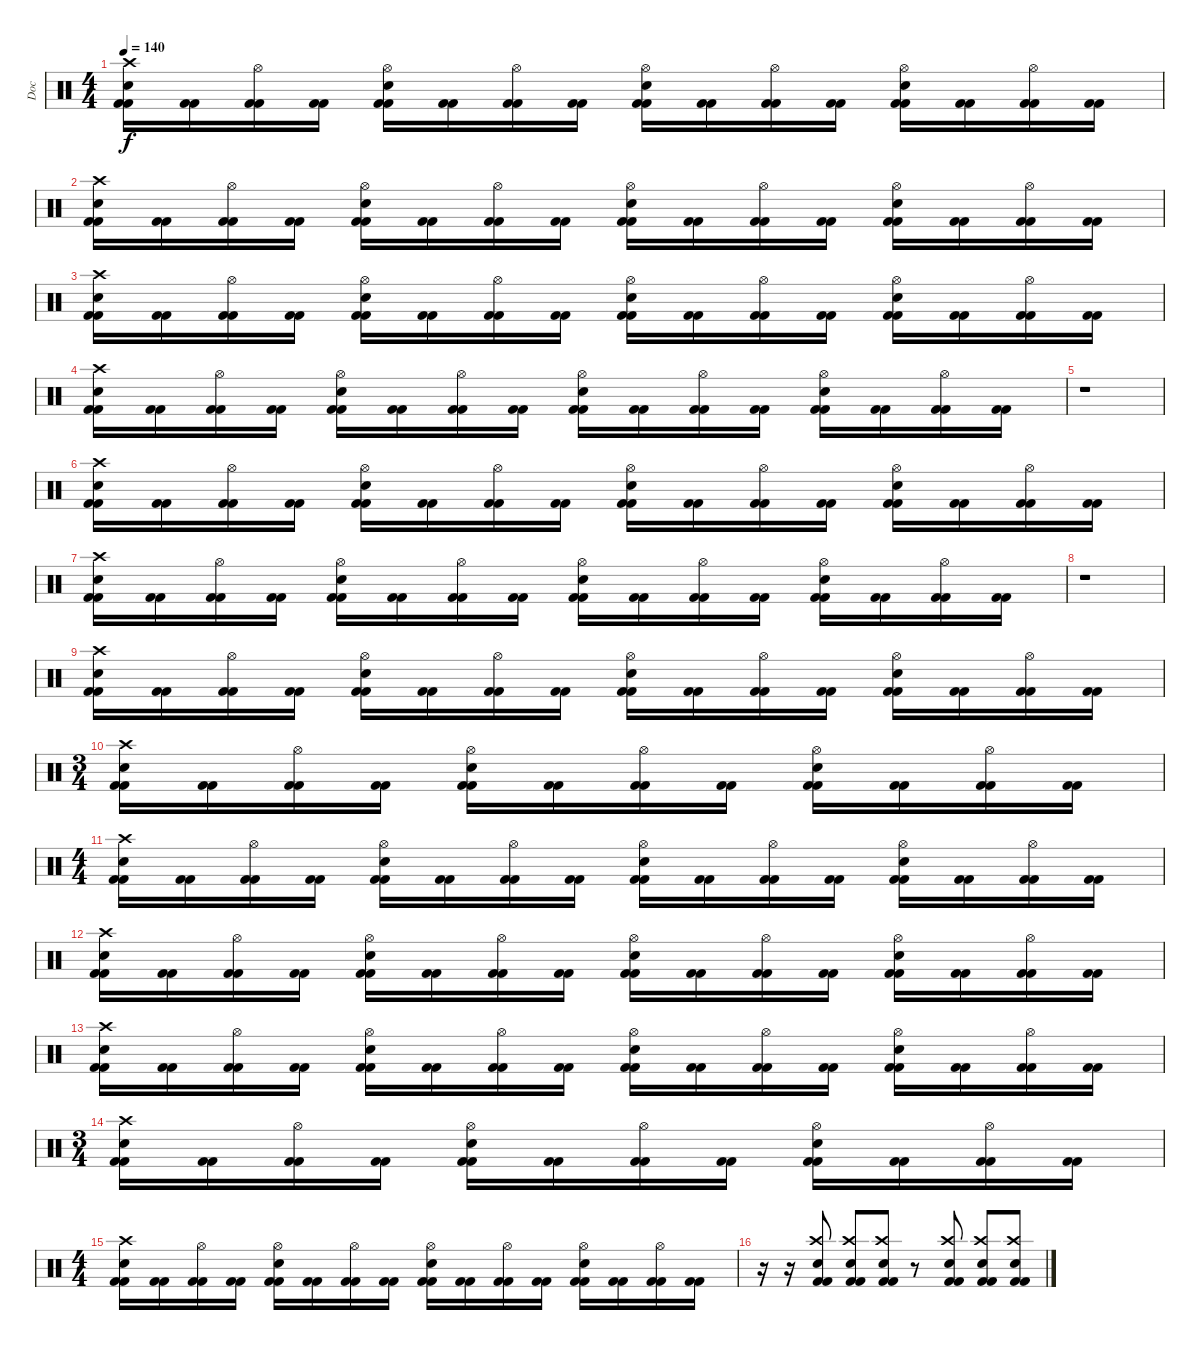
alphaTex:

\track ("Doc" "Doc") {instrument percussion}
\staff {score}
\articulation defaults
\ts (4 4)
\tempo 140
\clef neutral
\ks c
("Kick (hit) 2" "Crash high (hit)" "Electric Snare (hit)" "Kick (hit) 2").16{dy f} ("Kick (hit) 2" "Kick (hit) 2").16 ("Kick (hit) 2" "Hi-Hat (open)" "Kick (hit) 2").16 ("Kick (hit) 2" "Kick (hit) 2").16 ("Kick (hit) 2" "Hi-Hat (open)" "Electric Snare (hit)" "Kick (hit) 2").16 ("Kick (hit) 2" "Kick (hit) 2").16 ("Kick (hit) 2" "Hi-Hat (open)" "Kick (hit) 2").16 ("Kick (hit) 2" "Kick (hit) 2").16 ("Kick (hit) 2" "Hi-Hat (open)" "Electric Snare (hit)" "Kick (hit) 2").16 ("Kick (hit) 2" "Kick (hit) 2").16 ("Kick (hit) 2" "Hi-Hat (open)" "Kick (hit) 2").16 ("Kick (hit) 2" "Kick (hit) 2").16 ("Kick (hit) 2" "Hi-Hat (open)" "Electric Snare (hit)" "Kick (hit) 2").16 ("Kick (hit) 2" "Kick (hit) 2").16 ("Kick (hit) 2" "Hi-Hat (open)" "Kick (hit) 2").16 ("Kick (hit) 2" "Kick (hit) 2").16 |
("Kick (hit) 2" "Crash high (hit)" "Electric Snare (hit)" "Kick (hit) 2").16 ("Kick (hit) 2" "Kick (hit) 2").16 ("Kick (hit) 2" "Hi-Hat (open)" "Kick (hit) 2").16 ("Kick (hit) 2" "Kick (hit) 2").16 ("Kick (hit) 2" "Hi-Hat (open)" "Electric Snare (hit)" "Kick (hit) 2").16 ("Kick (hit) 2" "Kick (hit) 2").16 ("Kick (hit) 2" "Hi-Hat (open)" "Kick (hit) 2").16 ("Kick (hit) 2" "Kick (hit) 2").16 ("Kick (hit) 2" "Hi-Hat (open)" "Electric Snare (hit)" "Kick (hit) 2").16 ("Kick (hit) 2" "Kick (hit) 2").16 ("Kick (hit) 2" "Hi-Hat (open)" "Kick (hit) 2").16 ("Kick (hit) 2" "Kick (hit) 2").16 ("Kick (hit) 2" "Hi-Hat (open)" "Electric Snare (hit)" "Kick (hit) 2").16 ("Kick (hit) 2" "Kick (hit) 2").16 ("Kick (hit) 2" "Hi-Hat (open)" "Kick (hit) 2").16 ("Kick (hit) 2" "Kick (hit) 2").16 |
("Kick (hit) 2" "Crash high (hit)" "Electric Snare (hit)" "Kick (hit) 2").16 ("Kick (hit) 2" "Kick (hit) 2").16 ("Kick (hit) 2" "Hi-Hat (open)" "Kick (hit) 2").16 ("Kick (hit) 2" "Kick (hit) 2").16 ("Kick (hit) 2" "Hi-Hat (open)" "Electric Snare (hit)" "Kick (hit) 2").16 ("Kick (hit) 2" "Kick (hit) 2").16 ("Kick (hit) 2" "Hi-Hat (open)" "Kick (hit) 2").16 ("Kick (hit) 2" "Kick (hit) 2").16 ("Kick (hit) 2" "Hi-Hat (open)" "Electric Snare (hit)" "Kick (hit) 2").16 ("Kick (hit) 2" "Kick (hit) 2").16 ("Kick (hit) 2" "Hi-Hat (open)" "Kick (hit) 2").16 ("Kick (hit) 2" "Kick (hit) 2").16 ("Kick (hit) 2" "Hi-Hat (open)" "Electric Snare (hit)" "Kick (hit) 2").16 ("Kick (hit) 2" "Kick (hit) 2").16 ("Kick (hit) 2" "Hi-Hat (open)" "Kick (hit) 2").16 ("Kick (hit) 2" "Kick (hit) 2").16 |
("Kick (hit) 2" "Crash high (hit)" "Electric Snare (hit)" "Kick (hit) 2").16 ("Kick (hit) 2" "Kick (hit) 2").16 ("Kick (hit) 2" "Hi-Hat (open)" "Kick (hit) 2").16 ("Kick (hit) 2" "Kick (hit) 2").16 ("Kick (hit) 2" "Hi-Hat (open)" "Electric Snare (hit)" "Kick (hit) 2").16 ("Kick (hit) 2" "Kick (hit) 2").16 ("Kick (hit) 2" "Hi-Hat (open)" "Kick (hit) 2").16 ("Kick (hit) 2" "Kick (hit) 2").16 ("Kick (hit) 2" "Hi-Hat (open)" "Electric Snare (hit)" "Kick (hit) 2").16 ("Kick (hit) 2" "Kick (hit) 2").16 ("Kick (hit) 2" "Hi-Hat (open)" "Kick (hit) 2").16 ("Kick (hit) 2" "Kick (hit) 2").16 ("Kick (hit) 2" "Hi-Hat (open)" "Electric Snare (hit)" "Kick (hit) 2").16 ("Kick (hit) 2" "Kick (hit) 2").16 ("Kick (hit) 2" "Hi-Hat (open)" "Kick (hit) 2").16 ("Kick (hit) 2" "Kick (hit) 2").16 |
r.1 |
("Kick (hit) 2" "Crash high (hit)" "Electric Snare (hit)" "Kick (hit) 2").16 ("Kick (hit) 2" "Kick (hit) 2").16 ("Kick (hit) 2" "Hi-Hat (open)" "Kick (hit) 2").16 ("Kick (hit) 2" "Kick (hit) 2").16 ("Kick (hit) 2" "Hi-Hat (open)" "Electric Snare (hit)" "Kick (hit) 2").16 ("Kick (hit) 2" "Kick (hit) 2").16 ("Kick (hit) 2" "Hi-Hat (open)" "Kick (hit) 2").16 ("Kick (hit) 2" "Kick (hit) 2").16 ("Kick (hit) 2" "Hi-Hat (open)" "Electric Snare (hit)" "Kick (hit) 2").16 ("Kick (hit) 2" "Kick (hit) 2").16 ("Kick (hit) 2" "Hi-Hat (open)" "Kick (hit) 2").16 ("Kick (hit) 2" "Kick (hit) 2").16 ("Kick (hit) 2" "Hi-Hat (open)" "Electric Snare (hit)" "Kick (hit) 2").16 ("Kick (hit) 2" "Kick (hit) 2").16 ("Kick (hit) 2" "Hi-Hat (open)" "Kick (hit) 2").16 ("Kick (hit) 2" "Kick (hit) 2").16 |
("Kick (hit) 2" "Crash high (hit)" "Electric Snare (hit)" "Kick (hit) 2").16 ("Kick (hit) 2" "Kick (hit) 2").16 ("Kick (hit) 2" "Hi-Hat (open)" "Kick (hit) 2").16 ("Kick (hit) 2" "Kick (hit) 2").16 ("Kick (hit) 2" "Hi-Hat (open)" "Electric Snare (hit)" "Kick (hit) 2").16 ("Kick (hit) 2" "Kick (hit) 2").16 ("Kick (hit) 2" "Hi-Hat (open)" "Kick (hit) 2").16 ("Kick (hit) 2" "Kick (hit) 2").16 ("Kick (hit) 2" "Hi-Hat (open)" "Electric Snare (hit)" "Kick (hit) 2").16 ("Kick (hit) 2" "Kick (hit) 2").16 ("Kick (hit) 2" "Hi-Hat (open)" "Kick (hit) 2").16 ("Kick (hit) 2" "Kick (hit) 2").16 ("Kick (hit) 2" "Hi-Hat (open)" "Electric Snare (hit)" "Kick (hit) 2").16 ("Kick (hit) 2" "Kick (hit) 2").16 ("Kick (hit) 2" "Hi-Hat (open)" "Kick (hit) 2").16 ("Kick (hit) 2" "Kick (hit) 2").16 |
r.1 |
("Kick (hit) 2" "Crash high (hit)" "Electric Snare (hit)" "Kick (hit) 2").16 ("Kick (hit) 2" "Kick (hit) 2").16 ("Kick (hit) 2" "Hi-Hat (open)" "Kick (hit) 2").16 ("Kick (hit) 2" "Kick (hit) 2").16 ("Kick (hit) 2" "Hi-Hat (open)" "Electric Snare (hit)" "Kick (hit) 2").16 ("Kick (hit) 2" "Kick (hit) 2").16 ("Kick (hit) 2" "Hi-Hat (open)" "Kick (hit) 2").16 ("Kick (hit) 2" "Kick (hit) 2").16 ("Kick (hit) 2" "Hi-Hat (open)" "Electric Snare (hit)" "Kick (hit) 2").16 ("Kick (hit) 2" "Kick (hit) 2").16 ("Kick (hit) 2" "Hi-Hat (open)" "Kick (hit) 2").16 ("Kick (hit) 2" "Kick (hit) 2").16 ("Kick (hit) 2" "Hi-Hat (open)" "Electric Snare (hit)" "Kick (hit) 2").16 ("Kick (hit) 2" "Kick (hit) 2").16 ("Kick (hit) 2" "Hi-Hat (open)" "Kick (hit) 2").16 ("Kick (hit) 2" "Kick (hit) 2").16 |
\ts (3 4)
("Kick (hit) 2" "Crash high (hit)" "Electric Snare (hit)" "Kick (hit) 2").16 ("Kick (hit) 2" "Kick (hit) 2").16 ("Kick (hit) 2" "Hi-Hat (open)" "Kick (hit) 2").16 ("Kick (hit) 2" "Kick (hit) 2").16 ("Kick (hit) 2" "Hi-Hat (open)" "Electric Snare (hit)" "Kick (hit) 2").16 ("Kick (hit) 2" "Kick (hit) 2").16 ("Kick (hit) 2" "Hi-Hat (open)" "Kick (hit) 2").16 ("Kick (hit) 2" "Kick (hit) 2").16 ("Kick (hit) 2" "Hi-Hat (open)" "Electric Snare (hit)" "Kick (hit) 2").16 ("Kick (hit) 2" "Kick (hit) 2").16 ("Kick (hit) 2" "Hi-Hat (open)" "Kick (hit) 2").16 ("Kick (hit) 2" "Kick (hit) 2").16 |
\ts (4 4)
("Kick (hit) 2" "Crash high (hit)" "Electric Snare (hit)" "Kick (hit) 2").16 ("Kick (hit) 2" "Kick (hit) 2").16 ("Kick (hit) 2" "Hi-Hat (open)" "Kick (hit) 2").16 ("Kick (hit) 2" "Kick (hit) 2").16 ("Kick (hit) 2" "Hi-Hat (open)" "Electric Snare (hit)" "Kick (hit) 2").16 ("Kick (hit) 2" "Kick (hit) 2").16 ("Kick (hit) 2" "Hi-Hat (open)" "Kick (hit) 2").16 ("Kick (hit) 2" "Kick (hit) 2").16 ("Kick (hit) 2" "Hi-Hat (open)" "Electric Snare (hit)" "Kick (hit) 2").16 ("Kick (hit) 2" "Kick (hit) 2").16 ("Kick (hit) 2" "Hi-Hat (open)" "Kick (hit) 2").16 ("Kick (hit) 2" "Kick (hit) 2").16 ("Kick (hit) 2" "Hi-Hat (open)" "Electric Snare (hit)" "Kick (hit) 2").16 ("Kick (hit) 2" "Kick (hit) 2").16 ("Kick (hit) 2" "Hi-Hat (open)" "Kick (hit) 2").16 ("Kick (hit) 2" "Kick (hit) 2").16 |
("Kick (hit) 2" "Crash high (hit)" "Electric Snare (hit)" "Kick (hit) 2").16 ("Kick (hit) 2" "Kick (hit) 2").16 ("Kick (hit) 2" "Hi-Hat (open)" "Kick (hit) 2").16 ("Kick (hit) 2" "Kick (hit) 2").16 ("Kick (hit) 2" "Hi-Hat (open)" "Electric Snare (hit)" "Kick (hit) 2").16 ("Kick (hit) 2" "Kick (hit) 2").16 ("Kick (hit) 2" "Hi-Hat (open)" "Kick (hit) 2").16 ("Kick (hit) 2" "Kick (hit) 2").16 ("Kick (hit) 2" "Hi-Hat (open)" "Electric Snare (hit)" "Kick (hit) 2").16 ("Kick (hit) 2" "Kick (hit) 2").16 ("Kick (hit) 2" "Hi-Hat (open)" "Kick (hit) 2").16 ("Kick (hit) 2" "Kick (hit) 2").16 ("Kick (hit) 2" "Hi-Hat (open)" "Electric Snare (hit)" "Kick (hit) 2").16 ("Kick (hit) 2" "Kick (hit) 2").16 ("Kick (hit) 2" "Hi-Hat (open)" "Kick (hit) 2").16 ("Kick (hit) 2" "Kick (hit) 2").16 |
("Kick (hit) 2" "Crash high (hit)" "Electric Snare (hit)" "Kick (hit) 2").16 ("Kick (hit) 2" "Kick (hit) 2").16 ("Kick (hit) 2" "Hi-Hat (open)" "Kick (hit) 2").16 ("Kick (hit) 2" "Kick (hit) 2").16 ("Kick (hit) 2" "Hi-Hat (open)" "Electric Snare (hit)" "Kick (hit) 2").16 ("Kick (hit) 2" "Kick (hit) 2").16 ("Kick (hit) 2" "Hi-Hat (open)" "Kick (hit) 2").16 ("Kick (hit) 2" "Kick (hit) 2").16 ("Kick (hit) 2" "Hi-Hat (open)" "Electric Snare (hit)" "Kick (hit) 2").16 ("Kick (hit) 2" "Kick (hit) 2").16 ("Kick (hit) 2" "Hi-Hat (open)" "Kick (hit) 2").16 ("Kick (hit) 2" "Kick (hit) 2").16 ("Kick (hit) 2" "Hi-Hat (open)" "Electric Snare (hit)" "Kick (hit) 2").16 ("Kick (hit) 2" "Kick (hit) 2").16 ("Kick (hit) 2" "Hi-Hat (open)" "Kick (hit) 2").16 ("Kick (hit) 2" "Kick (hit) 2").16 |
\ts (3 4)
("Kick (hit) 2" "Crash high (hit)" "Electric Snare (hit)" "Kick (hit) 2").16 ("Kick (hit) 2" "Kick (hit) 2").16 ("Kick (hit) 2" "Hi-Hat (open)" "Kick (hit) 2").16 ("Kick (hit) 2" "Kick (hit) 2").16 ("Kick (hit) 2" "Hi-Hat (open)" "Electric Snare (hit)" "Kick (hit) 2").16 ("Kick (hit) 2" "Kick (hit) 2").16 ("Kick (hit) 2" "Hi-Hat (open)" "Kick (hit) 2").16 ("Kick (hit) 2" "Kick (hit) 2").16 ("Kick (hit) 2" "Hi-Hat (open)" "Electric Snare (hit)" "Kick (hit) 2").16 ("Kick (hit) 2" "Kick (hit) 2").16 ("Kick (hit) 2" "Hi-Hat (open)" "Kick (hit) 2").16 ("Kick (hit) 2" "Kick (hit) 2").16 |
\ts (4 4)
("Kick (hit) 2" "Crash high (hit)" "Electric Snare (hit)" "Kick (hit) 2").16 ("Kick (hit) 2" "Kick (hit) 2").16 ("Kick (hit) 2" "Hi-Hat (open)" "Kick (hit) 2").16 ("Kick (hit) 2" "Kick (hit) 2").16 ("Kick (hit) 2" "Hi-Hat (open)" "Electric Snare (hit)" "Kick (hit) 2").16 ("Kick (hit) 2" "Kick (hit) 2").16 ("Kick (hit) 2" "Hi-Hat (open)" "Kick (hit) 2").16 ("Kick (hit) 2" "Kick (hit) 2").16 ("Kick (hit) 2" "Hi-Hat (open)" "Electric Snare (hit)" "Kick (hit) 2").16 ("Kick (hit) 2" "Kick (hit) 2").16 ("Kick (hit) 2" "Hi-Hat (open)" "Kick (hit) 2").16 ("Kick (hit) 2" "Kick (hit) 2").16 ("Kick (hit) 2" "Hi-Hat (open)" "Electric Snare (hit)" "Kick (hit) 2").16 ("Kick (hit) 2" "Kick (hit) 2").16 ("Kick (hit) 2" "Hi-Hat (open)" "Kick (hit) 2").16 ("Kick (hit) 2" "Kick (hit) 2").16 |
r.16 r.16 ("Crash high (hit)" "Electric Snare (hit)" "Kick (hit) 2" "Kick (hit) 2").8 ("Crash high (hit)" "Electric Snare (hit)" "Kick (hit) 2" "Kick (hit) 2").8 ("Crash high (hit)" "Electric Snare (hit)" "Kick (hit) 2" "Kick (hit) 2").8 r.8 ("Crash high (hit)" "Electric Snare (hit)" "Kick (hit) 2" "Kick (hit) 2").8 ("Crash high (hit)" "Electric Snare (hit)" "Kick (hit) 2" "Kick (hit) 2").8 ("Crash high (hit)" "Electric Snare (hit)" "Kick (hit) 2" "Kick (hit) 2").8
